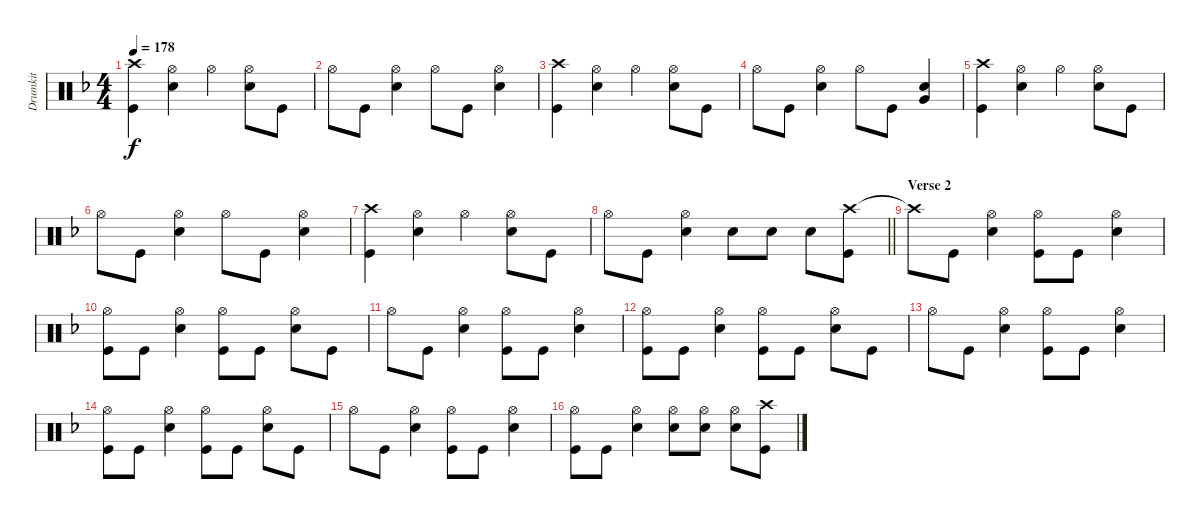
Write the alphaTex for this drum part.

\track ("Drumkit" "Drumkit") {instrument percussion}
\staff {score}
\articulation defaults
\ts (4 4)
\tempo 178
\clef neutral
\ks f
("Crash high (hit)" "Kick (hit)").4{dy f} ("Hi-Hat (open)" "Snare (hit) 2").4 "Hi-Hat (open)".4 ("Hi-Hat (open)" "Snare (hit) 2").8 "Kick (hit)".8 |
"Hi-Hat (open)".8 "Kick (hit)".8 ("Hi-Hat (open)" "Snare (hit) 2").4 "Hi-Hat (open)".8 "Kick (hit)".8 ("Hi-Hat (open)" "Snare (hit) 2").4 |
("Crash high (hit)" "Kick (hit)").4 ("Hi-Hat (open)" "Snare (hit) 2").4 "Hi-Hat (open)".4 ("Hi-Hat (open)" "Snare (hit) 2").8 "Kick (hit)".8 |
"Hi-Hat (open)".8 "Kick (hit)".8 ("Hi-Hat (open)" "Snare (hit) 2").4 "Hi-Hat (open)".8 "Kick (hit)".8 ("Very Low Tom (hit)" "Snare (hit) 2").4 |
("Crash high (hit)" "Kick (hit)").4 ("Hi-Hat (open)" "Snare (hit) 2").4 "Hi-Hat (open)".4 ("Hi-Hat (open)" "Snare (hit) 2").8 "Kick (hit)".8 |
"Hi-Hat (open)".8 "Kick (hit)".8 ("Hi-Hat (open)" "Snare (hit) 2").4 "Hi-Hat (open)".8 "Kick (hit)".8 ("Hi-Hat (open)" "Snare (hit) 2").4 |
("Crash high (hit)" "Kick (hit)").4 ("Hi-Hat (open)" "Snare (hit) 2").4 "Hi-Hat (open)".4 ("Hi-Hat (open)" "Snare (hit) 2").8 "Kick (hit)".8 |
\barLineRight lightlight "Hi-Hat (open)".8 "Kick (hit)".8
("Hi-Hat (open)" "Snare (hit) 2").4 "Snare (hit) 2".8 "Snare (hit) 2".8 "Snare (hit) 2".8 ("Crash high (hit)" "Kick (hit)").8 |
\section ("" "Verse 2")
"Crash high (hit)"{t}.8 "Kick (hit)".8 ("Hi-Hat (open)" "Snare (hit) 2").4 ("Hi-Hat (open)" "Kick (hit)").8 "Kick (hit)".8 ("Hi-Hat (open)" "Snare (hit) 2").4 |
("Hi-Hat (open)" "Kick (hit)").8 "Kick (hit)".8 ("Hi-Hat (open)" "Snare (hit) 2").4 ("Hi-Hat (open)" "Kick (hit)").8 "Kick (hit)".8 ("Hi-Hat (open)" "Snare (hit) 2").8 "Kick (hit)".8 |
"Hi-Hat (open)".8 "Kick (hit)".8 ("Hi-Hat (open)" "Snare (hit) 2").4 ("Hi-Hat (open)" "Kick (hit)").8 "Kick (hit)".8 ("Hi-Hat (open)" "Snare (hit) 2").4 |
("Hi-Hat (open)" "Kick (hit)").8 "Kick (hit)".8 ("Hi-Hat (open)" "Snare (hit) 2").4 ("Hi-Hat (open)" "Kick (hit)").8 "Kick (hit)".8 ("Hi-Hat (open)" "Snare (hit) 2").8 "Kick (hit)".8 |
"Hi-Hat (open)".8 "Kick (hit)".8 ("Hi-Hat (open)" "Snare (hit) 2").4 ("Hi-Hat (open)" "Kick (hit)").8 "Kick (hit)".8 ("Hi-Hat (open)" "Snare (hit) 2").4 |
("Hi-Hat (open)" "Kick (hit)").8 "Kick (hit)".8 ("Hi-Hat (open)" "Snare (hit) 2").4 ("Hi-Hat (open)" "Kick (hit)").8 "Kick (hit)".8 ("Hi-Hat (open)" "Snare (hit) 2").8 "Kick (hit)".8 |
"Hi-Hat (open)".8 "Kick (hit)".8 ("Hi-Hat (open)" "Snare (hit) 2").4 ("Hi-Hat (open)" "Kick (hit)").8 "Kick (hit)".8 ("Hi-Hat (open)" "Snare (hit) 2").4 |
("Hi-Hat (open)" "Kick (hit)").8 "Kick (hit)".8 ("Hi-Hat (open)" "Snare (hit) 2").4 ("Hi-Hat (open)" "Snare (hit) 2").8 ("Hi-Hat (open)" "Snare (hit) 2").8 ("Hi-Hat (open)" "Snare (hit) 2").8 ("Crash high (hit)" "Kick (hit)").8
